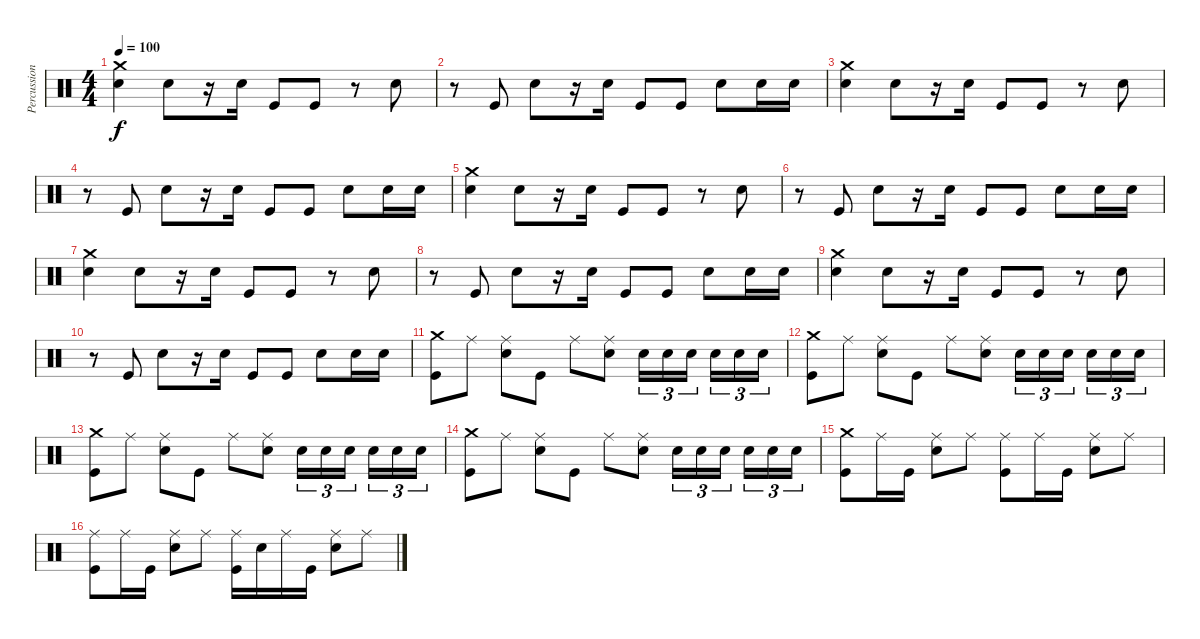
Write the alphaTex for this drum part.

\track ("Percussion" "Percussion") {instrument percussion}
\staff {score}
\articulation defaults
\ts (4 4)
\tempo 100
\clef neutral
\ks c
("Crash medium (hit)" "Snare (hit) 2").4{dy f} "Snare (hit) 2".8 r.16 "Snare (hit) 2".16 "Kick (hit)".8 "Kick (hit)".8 r.8 "Snare (hit) 2".8 |
r.8 "Kick (hit)".8 "Snare (hit) 2".8 r.16 "Snare (hit) 2".16 "Kick (hit)".8 "Kick (hit)".8 "Snare (hit) 2".8 "Snare (hit) 2".16 "Snare (hit) 2".16 |
("Crash medium (hit)" "Snare (hit) 2").4 "Snare (hit) 2".8 r.16 "Snare (hit) 2".16 "Kick (hit)".8 "Kick (hit)".8 r.8 "Snare (hit) 2".8 |
r.8 "Kick (hit)".8 "Snare (hit) 2".8 r.16 "Snare (hit) 2".16 "Kick (hit)".8 "Kick (hit)".8 "Snare (hit) 2".8 "Snare (hit) 2".16 "Snare (hit) 2".16 |
("Crash medium (hit)" "Snare (hit) 2").4 "Snare (hit) 2".8 r.16 "Snare (hit) 2".16 "Kick (hit)".8 "Kick (hit)".8 r.8 "Snare (hit) 2".8 |
r.8 "Kick (hit)".8 "Snare (hit) 2".8 r.16 "Snare (hit) 2".16 "Kick (hit)".8 "Kick (hit)".8 "Snare (hit) 2".8 "Snare (hit) 2".16 "Snare (hit) 2".16 |
("Crash medium (hit)" "Snare (hit) 2").4 "Snare (hit) 2".8 r.16 "Snare (hit) 2".16 "Kick (hit)".8 "Kick (hit)".8 r.8 "Snare (hit) 2".8 |
r.8 "Kick (hit)".8 "Snare (hit) 2".8 r.16 "Snare (hit) 2".16 "Kick (hit)".8 "Kick (hit)".8 "Snare (hit) 2".8 "Snare (hit) 2".16 "Snare (hit) 2".16 |
("Crash medium (hit)" "Snare (hit) 2").4 "Snare (hit) 2".8 r.16 "Snare (hit) 2".16 "Kick (hit)".8 "Kick (hit)".8 r.8 "Snare (hit) 2".8 |
r.8 "Kick (hit)".8 "Snare (hit) 2".8 r.16 "Snare (hit) 2".16 "Kick (hit)".8 "Kick (hit)".8 "Snare (hit) 2".8 "Snare (hit) 2".16 "Snare (hit) 2".16 |
("Crash medium (hit)" "Kick (hit)").8 "Ride (middle)".8 ("Ride (middle)" "Snare (hit) 2").8 "Kick (hit)".8 "Ride (middle)".8 ("Ride (middle)" "Snare (hit) 2").8 "Snare (hit) 2".16{tu (3 2)} "Snare (hit) 2".16{tu (3 2)} "Snare (hit) 2".16{tu (3 2) beam splitsecondary} "Snare (hit) 2".16{tu (3 2)} "Snare (hit) 2".16{tu (3 2)} "Snare (hit) 2".16{tu (3 2)} |
("Crash medium (hit)" "Kick (hit)").8 "Ride (middle)".8 ("Ride (middle)" "Snare (hit) 2").8 "Kick (hit)".8 "Ride (middle)".8 ("Ride (middle)" "Snare (hit) 2").8 "Snare (hit) 2".16{tu (3 2)} "Snare (hit) 2".16{tu (3 2)} "Snare (hit) 2".16{tu (3 2) beam splitsecondary} "Snare (hit) 2".16{tu (3 2)} "Snare (hit) 2".16{tu (3 2)} "Snare (hit) 2".16{tu (3 2)} |
("Crash medium (hit)" "Kick (hit)").8 "Ride (middle)".8 ("Ride (middle)" "Snare (hit) 2").8 "Kick (hit)".8 "Ride (middle)".8 ("Ride (middle)" "Snare (hit) 2").8 "Snare (hit) 2".16{tu (3 2)} "Snare (hit) 2".16{tu (3 2)} "Snare (hit) 2".16{tu (3 2) beam splitsecondary} "Snare (hit) 2".16{tu (3 2)} "Snare (hit) 2".16{tu (3 2)} "Snare (hit) 2".16{tu (3 2)} |
("Crash medium (hit)" "Kick (hit)").8 "Ride (middle)".8 ("Ride (middle)" "Snare (hit) 2").8 "Kick (hit)".8 "Ride (middle)".8 ("Ride (middle)" "Snare (hit) 2").8 "Snare (hit) 2".16{tu (3 2)} "Snare (hit) 2".16{tu (3 2)} "Snare (hit) 2".16{tu (3 2) beam splitsecondary} "Snare (hit) 2".16{tu (3 2)} "Snare (hit) 2".16{tu (3 2)} "Snare (hit) 2".16{tu (3 2)} |
("Crash medium (hit)" "Kick (hit)").8 "Ride (middle)".16 "Kick (hit)".16 ("Ride (middle)" "Snare (hit) 2").8 "Ride (middle)".8 ("Ride (middle)" "Kick (hit)").8 "Ride (middle)".16 "Kick (hit)".16 ("Ride (middle)" "Snare (hit) 2").8 "Ride (middle)".8 |
("Ride (middle)" "Kick (hit)").8 "Ride (middle)".16 "Kick (hit)".16 ("Ride (middle)" "Snare (hit) 2").8 "Ride (middle)".8 ("Ride (middle)" "Kick (hit)").16 "Snare (hit) 2".16 "Ride (middle)".16 "Kick (hit)".16 ("Ride (middle)" "Snare (hit) 2").8 "Ride (middle)".8
